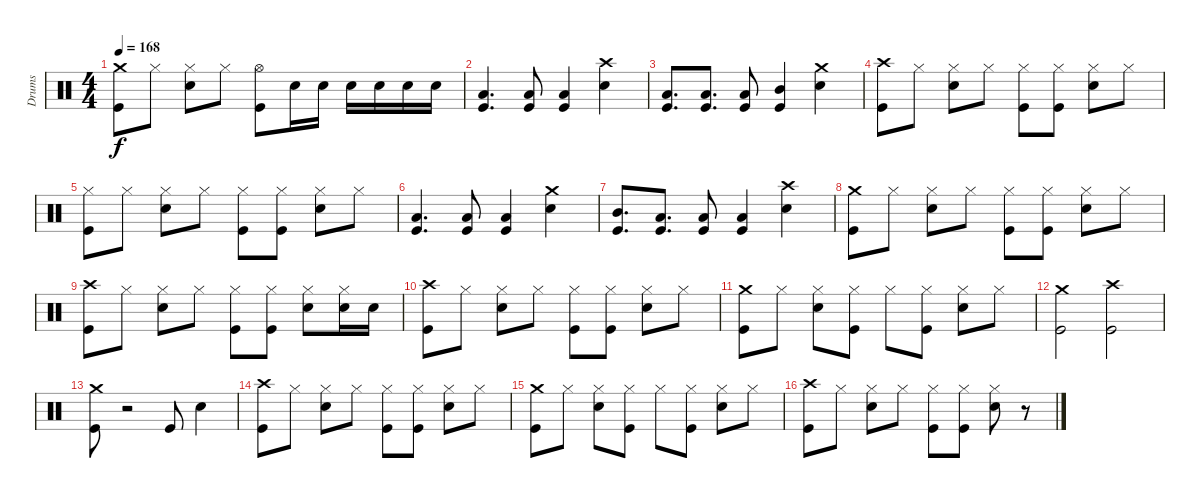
\track ("Drums" "Drums") {instrument percussion}
\staff {score}
\articulation defaults
\ts (4 4)
\tempo 168
\clef neutral
\ks c
("Crash medium (hit)" "Kick (hit)").8{dy f} "Hi-Hat (closed)".8 ("Hi-Hat (closed)" "Snare (hit) 2").8 "Hi-Hat (closed)".8 ("Hi-Hat (open)" "Kick (hit)").8 "Snare (hit) 2".16 "Snare (hit) 2".16 "Snare (hit) 2".16 "Snare (hit) 2".16 "Snare (hit) 2".16 "Snare (hit) 2".16 |
("Low Floor Tom (hit)" "Kick (hit)").4{d} ("Low Floor Tom (hit)" "Kick (hit)").8 ("Low Floor Tom (hit)" "Kick (hit)").4 ("Crash high (hit)" "Snare (hit) 2").4 |
("Low Floor Tom (hit)" "Kick (hit)").8{d} ("Low Floor Tom (hit)" "Kick (hit)").8{d} ("Low Tom (hit)" "Kick (hit)").8 ("Mid Tom (hit)" "Kick (hit)").4 ("Crash medium (hit)" "Snare (hit) 2").4 |
("Crash high (hit)" "Kick (hit)").8 "Hi-Hat (closed)".8 ("Hi-Hat (closed)" "Snare (hit) 2").8 "Hi-Hat (closed)".8 ("Hi-Hat (closed)" "Kick (hit)").8 ("Hi-Hat (closed)" "Kick (hit)").8 ("Hi-Hat (closed)" "Snare (hit) 2").8 "Hi-Hat (closed)".8 |
("Hi-Hat (closed)" "Kick (hit)").8 "Hi-Hat (closed)".8 ("Hi-Hat (closed)" "Snare (hit) 2").8 "Hi-Hat (closed)".8 ("Hi-Hat (closed)" "Kick (hit)").8 ("Hi-Hat (closed)" "Kick (hit)").8 ("Hi-Hat (closed)" "Snare (hit) 2").8 "Hi-Hat (closed)".8 |
("Low Floor Tom (hit)" "Kick (hit)").4{d} ("Low Floor Tom (hit)" "Kick (hit)").8 ("Low Floor Tom (hit)" "Kick (hit)").4 ("Crash medium (hit)" "Snare (hit) 2").4 |
("Mid Tom (hit)" "Kick (hit)").8{d} ("Low Tom (hit)" "Kick (hit)").8{d} ("Low Floor Tom (hit)" "Kick (hit)").8 ("Low Floor Tom (hit)" "Kick (hit)").4 ("Crash high (hit)" "Snare (hit) 2").4 |
("Crash medium (hit)" "Kick (hit)").8 "Hi-Hat (closed)".8 ("Hi-Hat (closed)" "Snare (hit) 2").8 "Hi-Hat (closed)".8 ("Hi-Hat (closed)" "Kick (hit)").8 ("Hi-Hat (closed)" "Kick (hit)").8 ("Hi-Hat (closed)" "Snare (hit) 2").8 "Hi-Hat (closed)".8 |
("Crash high (hit)" "Kick (hit)").8 "Hi-Hat (closed)".8 ("Hi-Hat (closed)" "Snare (hit) 2").8 "Hi-Hat (closed)".8 ("Hi-Hat (closed)" "Kick (hit)").8 ("Hi-Hat (closed)" "Kick (hit)").8 ("Hi-Hat (closed)" "Snare (hit) 2").8 ("Hi-Hat (closed)" "Snare (hit) 2").16 "Snare (hit) 2".16 |
("Crash high (hit)" "Kick (hit)").8 "Hi-Hat (closed)".8 ("Hi-Hat (closed)" "Snare (hit) 2").8 "Hi-Hat (closed)".8 ("Hi-Hat (closed)" "Kick (hit)").8 ("Hi-Hat (closed)" "Kick (hit)").8 ("Hi-Hat (closed)" "Snare (hit) 2").8 "Hi-Hat (closed)".8 |
("Crash medium (hit)" "Kick (hit)").8 "Hi-Hat (closed)".8 ("Hi-Hat (closed)" "Snare (hit) 2").8 ("Hi-Hat (closed)" "Kick (hit)").8 "Hi-Hat (closed)".8 ("Hi-Hat (closed)" "Kick (hit)").8 ("Hi-Hat (closed)" "Snare (hit) 2").8 "Hi-Hat (closed)".8 |
("Crash medium (hit)" "Kick (hit)").2 ("Crash high (hit)" "Kick (hit)").2 |
("Crash medium (hit)" "Kick (hit)").8 r.2 "Kick (hit)".8 "Snare (hit) 2".4 |
("Crash high (hit)" "Kick (hit)").8 "Hi-Hat (closed)".8 ("Hi-Hat (closed)" "Snare (hit) 2").8 "Hi-Hat (closed)".8 ("Hi-Hat (closed)" "Kick (hit)").8 ("Hi-Hat (closed)" "Kick (hit)").8 ("Hi-Hat (closed)" "Snare (hit) 2").8 "Hi-Hat (closed)".8 |
("Crash medium (hit)" "Kick (hit)").8 "Hi-Hat (closed)".8 ("Hi-Hat (closed)" "Snare (hit) 2").8 ("Hi-Hat (closed)" "Kick (hit)").8 "Hi-Hat (closed)".8 ("Hi-Hat (closed)" "Kick (hit)").8 ("Hi-Hat (closed)" "Snare (hit) 2").8 "Hi-Hat (closed)".8 |
("Crash high (hit)" "Kick (hit)").8 "Hi-Hat (closed)".8 ("Hi-Hat (closed)" "Snare (hit) 2").8 "Hi-Hat (closed)".8 ("Hi-Hat (closed)" "Kick (hit)").8 ("Hi-Hat (closed)" "Kick (hit)").8 ("Hi-Hat (closed)" "Snare (hit) 2").8 r.8{volume 6}
